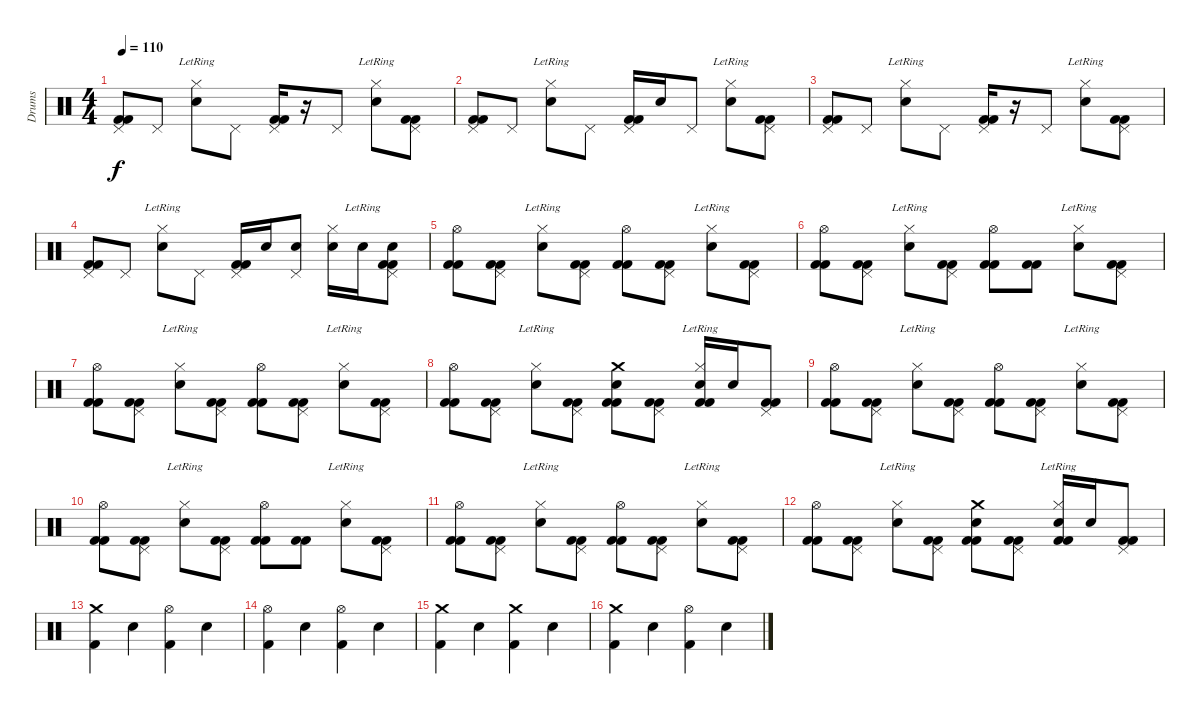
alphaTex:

\track ("Drums" "Drums") {instrument percussion}
\staff {score}
\articulation defaults
\ts (4 4)
\tempo 110
\clef neutral
\ks c
("Pedal Hi-Hat (hit)" "Kick (hit) 2" "Kick (hit) 2").8{dy f} "Pedal Hi-Hat (hit)".8 ("Hi-Hat (closed)" "Electric Snare (hit)"{lr}).8 "Pedal Hi-Hat (hit)".8 ("Pedal Hi-Hat (hit)" "Kick (hit) 2" "Kick (hit) 2").16 r.16 "Pedal Hi-Hat (hit)".8 ("Hi-Hat (closed)" "Electric Snare (hit)"{lr}).8 ("Pedal Hi-Hat (hit)" "Kick (hit) 2" "Kick (hit) 2").8 |
("Pedal Hi-Hat (hit)" "Kick (hit) 2" "Kick (hit) 2").8 "Pedal Hi-Hat (hit)".8 ("Hi-Hat (closed)" "Electric Snare (hit)"{lr}).8 "Pedal Hi-Hat (hit)".8 ("Pedal Hi-Hat (hit)" "Kick (hit) 2" "Kick (hit) 2").16 "Electric Snare (hit)".16 "Pedal Hi-Hat (hit)".8 ("Hi-Hat (closed)" "Electric Snare (hit)"{lr}).8 ("Pedal Hi-Hat (hit)" "Kick (hit) 2" "Kick (hit) 2").8 |
("Pedal Hi-Hat (hit)" "Kick (hit) 2" "Kick (hit) 2").8 "Pedal Hi-Hat (hit)".8 ("Hi-Hat (closed)" "Electric Snare (hit)"{lr}).8 "Pedal Hi-Hat (hit)".8 ("Pedal Hi-Hat (hit)" "Kick (hit) 2" "Kick (hit) 2").16 r.16 "Pedal Hi-Hat (hit)".8 ("Hi-Hat (closed)" "Electric Snare (hit)"{lr}).8 ("Pedal Hi-Hat (hit)" "Kick (hit) 2" "Kick (hit) 2").8 |
("Pedal Hi-Hat (hit)" "Kick (hit) 2" "Kick (hit) 2").8 "Pedal Hi-Hat (hit)".8 ("Hi-Hat (closed)" "Electric Snare (hit)"{lr}).8 "Pedal Hi-Hat (hit)".8 ("Pedal Hi-Hat (hit)" "Kick (hit) 2" "Kick (hit) 2").16 "Electric Snare (hit)".16 ("Pedal Hi-Hat (hit)" "Electric Snare (hit)").8 ("Hi-Hat (closed)" "Electric Snare (hit)").16 "Electric Snare (hit)"{lr}.16 ("Pedal Hi-Hat (hit)" "Electric Snare (hit)" "Kick (hit) 2" "Kick (hit) 2").8 |
("Hi-Hat (open)" "Kick (hit) 2" "Kick (hit) 2").8 ("Pedal Hi-Hat (hit)" "Kick (hit) 2" "Kick (hit) 2").8 ("Hi-Hat (closed)" "Electric Snare (hit)"{lr}).8 ("Pedal Hi-Hat (hit)" "Kick (hit) 2" "Kick (hit) 2").8 ("Hi-Hat (open)" "Kick (hit) 2" "Kick (hit) 2").8 ("Pedal Hi-Hat (hit)" "Kick (hit) 2" "Kick (hit) 2").8 ("Hi-Hat (closed)" "Electric Snare (hit)"{lr}).8 ("Pedal Hi-Hat (hit)" "Kick (hit) 2" "Kick (hit) 2").8 |
("Hi-Hat (open)" "Kick (hit) 2" "Kick (hit) 2").8 ("Pedal Hi-Hat (hit)" "Kick (hit) 2" "Kick (hit) 2").8 ("Hi-Hat (closed)" "Electric Snare (hit)"{lr}).8 ("Pedal Hi-Hat (hit)" "Kick (hit) 2" "Kick (hit) 2").8 ("Hi-Hat (open)" "Kick (hit) 2" "Kick (hit) 2").8 ("Kick (hit) 2" "Kick (hit) 2").8 ("Hi-Hat (closed)" "Electric Snare (hit)"{lr}).8 ("Pedal Hi-Hat (hit)" "Kick (hit) 2" "Kick (hit) 2").8 |
("Hi-Hat (open)" "Kick (hit) 2" "Kick (hit) 2").8 ("Pedal Hi-Hat (hit)" "Kick (hit) 2" "Kick (hit) 2").8 ("Hi-Hat (closed)" "Electric Snare (hit)"{lr}).8 ("Pedal Hi-Hat (hit)" "Kick (hit) 2" "Kick (hit) 2").8 ("Hi-Hat (open)" "Kick (hit) 2" "Kick (hit) 2").8 ("Pedal Hi-Hat (hit)" "Kick (hit) 2" "Kick (hit) 2").8 ("Hi-Hat (closed)" "Electric Snare (hit)"{lr}).8 ("Pedal Hi-Hat (hit)" "Kick (hit) 2" "Kick (hit) 2").8 |
("Hi-Hat (open)" "Kick (hit) 2" "Kick (hit) 2").8 ("Pedal Hi-Hat (hit)" "Kick (hit) 2" "Kick (hit) 2").8 ("Hi-Hat (closed)" "Electric Snare (hit)"{lr}).8 ("Pedal Hi-Hat (hit)" "Kick (hit) 2" "Kick (hit) 2").8 ("Crash medium (hit)" "Electric Snare (hit)" "Kick (hit) 2" "Kick (hit) 2").8 ("Pedal Hi-Hat (hit)" "Kick (hit) 2" "Kick (hit) 2").8 ("Hi-Hat (closed)" "Electric Snare (hit)"{lr} "Kick (hit) 2" "Kick (hit) 2").16 "Electric Snare (hit)".16 ("Pedal Hi-Hat (hit)" "Kick (hit) 2" "Kick (hit) 2").8 |
("Hi-Hat (open)" "Kick (hit) 2" "Kick (hit) 2").8 ("Pedal Hi-Hat (hit)" "Kick (hit) 2" "Kick (hit) 2").8 ("Hi-Hat (closed)" "Electric Snare (hit)"{lr}).8 ("Pedal Hi-Hat (hit)" "Kick (hit) 2" "Kick (hit) 2").8 ("Hi-Hat (open)" "Kick (hit) 2" "Kick (hit) 2").8 ("Pedal Hi-Hat (hit)" "Kick (hit) 2" "Kick (hit) 2").8 ("Hi-Hat (closed)" "Electric Snare (hit)"{lr}).8 ("Pedal Hi-Hat (hit)" "Kick (hit) 2" "Kick (hit) 2").8 |
("Hi-Hat (open)" "Kick (hit) 2" "Kick (hit) 2").8 ("Pedal Hi-Hat (hit)" "Kick (hit) 2" "Kick (hit) 2").8 ("Hi-Hat (closed)" "Electric Snare (hit)"{lr}).8 ("Pedal Hi-Hat (hit)" "Kick (hit) 2" "Kick (hit) 2").8 ("Hi-Hat (open)" "Kick (hit) 2" "Kick (hit) 2").8 ("Kick (hit) 2" "Kick (hit) 2").8 ("Hi-Hat (closed)" "Electric Snare (hit)"{lr}).8 ("Pedal Hi-Hat (hit)" "Kick (hit) 2" "Kick (hit) 2").8 |
("Hi-Hat (open)" "Kick (hit) 2" "Kick (hit) 2").8 ("Pedal Hi-Hat (hit)" "Kick (hit) 2" "Kick (hit) 2").8 ("Hi-Hat (closed)" "Electric Snare (hit)"{lr}).8 ("Pedal Hi-Hat (hit)" "Kick (hit) 2" "Kick (hit) 2").8 ("Hi-Hat (open)" "Kick (hit) 2" "Kick (hit) 2").8 ("Pedal Hi-Hat (hit)" "Kick (hit) 2" "Kick (hit) 2").8 ("Hi-Hat (closed)" "Electric Snare (hit)"{lr}).8 ("Pedal Hi-Hat (hit)" "Kick (hit) 2" "Kick (hit) 2").8 |
("Hi-Hat (open)" "Kick (hit) 2" "Kick (hit) 2").8 ("Pedal Hi-Hat (hit)" "Kick (hit) 2" "Kick (hit) 2").8 ("Hi-Hat (closed)" "Electric Snare (hit)"{lr}).8 ("Pedal Hi-Hat (hit)" "Kick (hit) 2" "Kick (hit) 2").8 ("Crash medium (hit)" "Electric Snare (hit)" "Kick (hit) 2" "Kick (hit) 2").8 ("Pedal Hi-Hat (hit)" "Kick (hit) 2" "Kick (hit) 2").8 ("Hi-Hat (closed)" "Electric Snare (hit)"{lr} "Kick (hit) 2" "Kick (hit) 2").16 "Electric Snare (hit)".16 ("Pedal Hi-Hat (hit)" "Kick (hit) 2" "Kick (hit) 2").8 |
("Crash medium (hit)" "Kick (hit) 2").4 "Electric Snare (hit)".4 ("Hi-Hat (open)" "Kick (hit) 2").4 "Electric Snare (hit)".4 |
("Hi-Hat (open)" "Kick (hit) 2").4 "Electric Snare (hit)".4 ("Hi-Hat (open)" "Kick (hit) 2").4 "Electric Snare (hit)".4 |
("Crash medium (hit)" "Kick (hit) 2").4 "Electric Snare (hit)".4 ("Crash medium (hit)" "Kick (hit) 2").4 "Electric Snare (hit)".4 |
("Crash medium (hit)" "Kick (hit) 2").4 "Electric Snare (hit)".4 ("Hi-Hat (open)" "Kick (hit) 2").4 "Electric Snare (hit)".4
